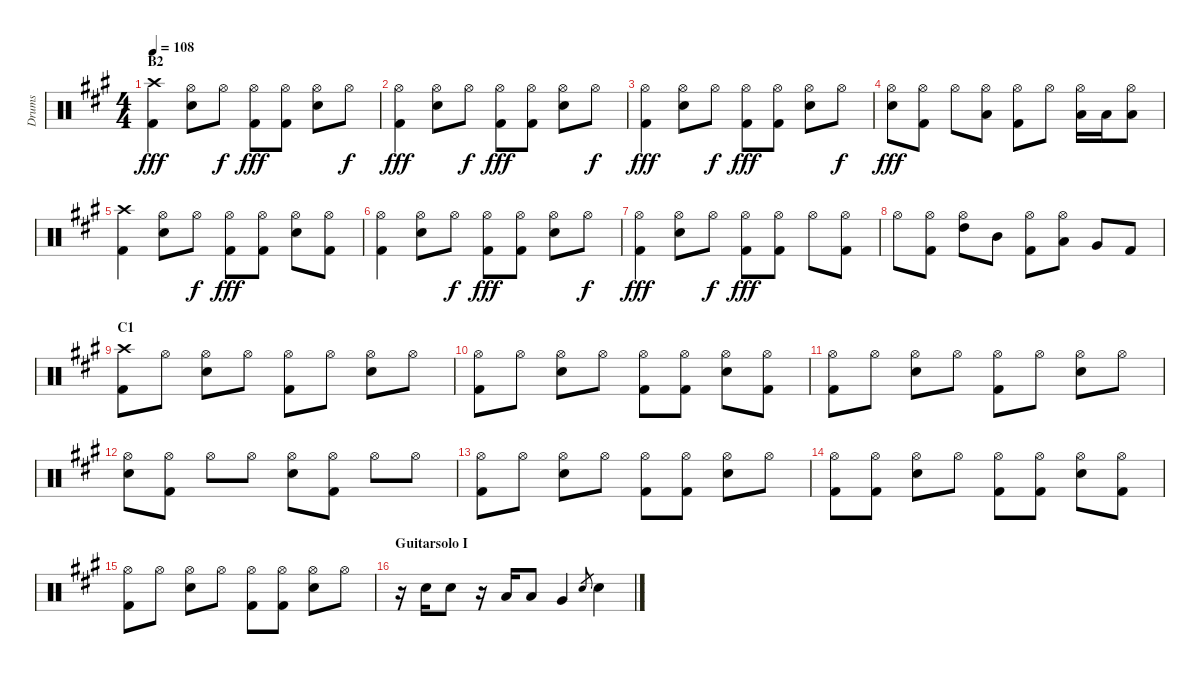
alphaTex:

\track ("Drums" "Drums") {instrument percussion}
\staff {score}
\articulation defaults
\ts (4 4)
\section ("" "B2")
\tempo 108
\clef neutral
\ks a
("Crash high (hit)" "Kick (hit) 2").4{dy fff} ("Hi-Hat (open)" "Electric Snare (hit)").8 "Hi-Hat (open)".8{dy f} ("Hi-Hat (open)" "Kick (hit) 2").8{dy fff} ("Hi-Hat (open)" "Kick (hit) 2").8 ("Hi-Hat (open)" "Electric Snare (hit)").8 "Hi-Hat (open)".8{dy f} |
("Hi-Hat (open)" "Kick (hit) 2").4{dy fff} ("Hi-Hat (open)" "Electric Snare (hit)").8 "Hi-Hat (open)".8{dy f} ("Hi-Hat (open)" "Kick (hit) 2").8{dy fff} ("Hi-Hat (open)" "Kick (hit) 2").8 ("Hi-Hat (open)" "Electric Snare (hit)").8 "Hi-Hat (open)".8{dy f} |
("Hi-Hat (open)" "Kick (hit) 2").4{dy fff} ("Hi-Hat (open)" "Electric Snare (hit)").8 "Hi-Hat (open)".8{dy f} ("Hi-Hat (open)" "Kick (hit) 2").8{dy fff} ("Hi-Hat (open)" "Kick (hit) 2").8 ("Hi-Hat (open)" "Electric Snare (hit)").8 "Hi-Hat (open)".8{dy f} |
("Hi-Hat (open)" "Electric Snare (hit)").8{dy fff} ("Hi-Hat (open)" "Kick (hit) 2").8 "Hi-Hat (open)".8 ("Hi-Hat (open)" "Low Tom (hit)").8 ("Hi-Hat (open)" "Kick (hit) 2").8 "Hi-Hat (open)".8 ("Hi-Hat (open)" "Low Floor Tom (hit)").16 "Low Floor Tom (hit)".16 ("Hi-Hat (open)" "Low Floor Tom (hit)").8 |
("Crash high (hit)" "Kick (hit) 2").4 ("Hi-Hat (open)" "Electric Snare (hit)").8 "Hi-Hat (open)".8{dy f} ("Hi-Hat (open)" "Kick (hit) 2").8{dy fff} ("Hi-Hat (open)" "Kick (hit) 2").8 ("Hi-Hat (open)" "Electric Snare (hit)").8 ("Hi-Hat (open)" "Kick (hit) 2").8 |
("Hi-Hat (open)" "Kick (hit) 2").4 ("Hi-Hat (open)" "Electric Snare (hit)").8 "Hi-Hat (open)".8{dy f} ("Hi-Hat (open)" "Kick (hit) 2").8{dy fff} ("Hi-Hat (open)" "Kick (hit) 2").8 ("Hi-Hat (open)" "Electric Snare (hit)").8 "Hi-Hat (open)".8{dy f} |
("Hi-Hat (open)" "Kick (hit) 2").4{dy fff} ("Hi-Hat (open)" "Electric Snare (hit)").8 "Hi-Hat (open)".8{dy f} ("Hi-Hat (open)" "Kick (hit) 2").8{dy fff} ("Hi-Hat (open)" "Kick (hit) 2").8 "Hi-Hat (open)".8 ("Hi-Hat (open)" "Kick (hit) 2").8 |
"Hi-Hat (open)".8 ("Hi-Hat (open)" "Kick (hit) 2").8 ("Hi-Hat (open)" "High Tom (hit)").8 "Mid Tom (hit)".8 ("Hi-Hat (open)" "Kick (hit) 2").8 ("Hi-Hat (open)" "Low Tom (hit)").8 "Very Low Tom (hit)".8 "Kick (hit) 2".8 |
\section ("" "C1")
("Crash high (hit)" "Kick (hit) 2").8 "Hi-Hat (open)".8 ("Hi-Hat (open)" "Electric Snare (hit)").8 "Hi-Hat (open)".8 ("Hi-Hat (open)" "Kick (hit) 2").8 "Hi-Hat (open)".8 ("Hi-Hat (open)" "Electric Snare (hit)").8 "Hi-Hat (open)".8 |
("Hi-Hat (open)" "Kick (hit) 2").8 "Hi-Hat (open)".8 ("Hi-Hat (open)" "Electric Snare (hit)").8 "Hi-Hat (open)".8 ("Hi-Hat (open)" "Kick (hit) 2").8 ("Hi-Hat (open)" "Kick (hit) 2").8 ("Hi-Hat (open)" "Electric Snare (hit)").8 ("Hi-Hat (open)" "Kick (hit) 2").8 |
("Hi-Hat (open)" "Kick (hit) 2").8 "Hi-Hat (open)".8 ("Hi-Hat (open)" "Electric Snare (hit)").8 "Hi-Hat (open)".8 ("Hi-Hat (open)" "Kick (hit) 2").8 "Hi-Hat (open)".8 ("Hi-Hat (open)" "Electric Snare (hit)").8 "Hi-Hat (open)".8 |
("Hi-Hat (open)" "Electric Snare (hit)").8 ("Hi-Hat (open)" "Kick (hit) 2").8 "Hi-Hat (open)".8 "Hi-Hat (open)".8 ("Hi-Hat (open)" "Electric Snare (hit)").8 ("Hi-Hat (open)" "Kick (hit) 2").8 "Hi-Hat (open)".8 "Hi-Hat (open)".8 |
("Hi-Hat (open)" "Kick (hit) 2").8 "Hi-Hat (open)".8 ("Hi-Hat (open)" "Electric Snare (hit)").8 "Hi-Hat (open)".8 ("Hi-Hat (open)" "Kick (hit) 2").8 ("Hi-Hat (open)" "Kick (hit) 2").8 ("Hi-Hat (open)" "Electric Snare (hit)").8 "Hi-Hat (open)".8 |
("Hi-Hat (open)" "Kick (hit) 2").8 ("Hi-Hat (open)" "Kick (hit) 2").8 ("Hi-Hat (open)" "Electric Snare (hit)").8 "Hi-Hat (open)".8 ("Hi-Hat (open)" "Kick (hit) 2").8 ("Hi-Hat (open)" "Kick (hit) 2").8 ("Hi-Hat (open)" "Electric Snare (hit)").8 ("Hi-Hat (open)" "Kick (hit) 2").8 |
("Hi-Hat (open)" "Kick (hit) 2").8 "Hi-Hat (open)".8 ("Hi-Hat (open)" "Electric Snare (hit)").8 "Hi-Hat (open)".8 ("Hi-Hat (open)" "Kick (hit) 2").8 ("Hi-Hat (open)" "Kick (hit) 2").8 ("Hi-Hat (open)" "Electric Snare (hit)").8 "Hi-Hat (open)".8 |
\section ("" "Guitarsolo I")
r.16 "Electric Snare (hit)".16 "Electric Snare (hit)".8 r.16 "Low Tom (hit)".16 "Low Tom (hit)".8 "Very Low Tom (hit)".4 "Electric Snare (hit)".8{gr} "Electric Snare (hit)".4
